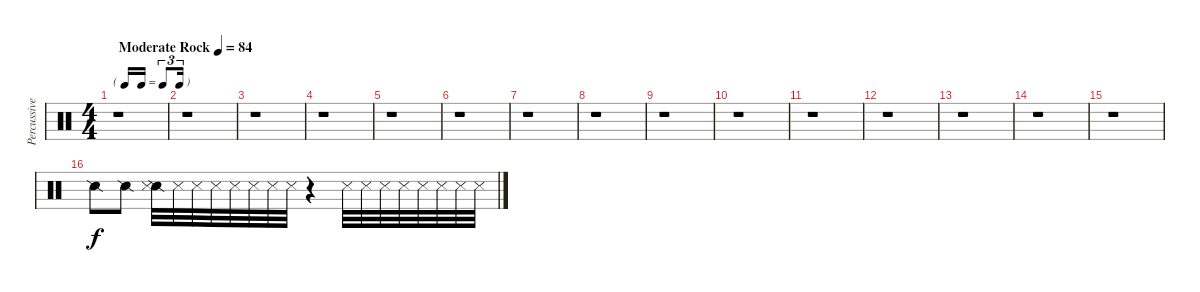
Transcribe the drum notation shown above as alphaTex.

\track ("Percussive Over-Dubs" "Percussive") {instrument percussion}
\staff {score}
\articulation defaults
\ts (4 4)
\tf triplet16th
\tempo (84 "Moderate Rock")
\clef neutral
\ks c
r.1{dy f} |
r.1 |
r.1 |
r.1 |
r.1 |
r.1 |
r.1 |
r.1 |
r.1 |
r.1 |
r.1 |
r.1 |
r.1 |
r.1 |
r.1 |
"Snare (side stick) 2".8 "Snare (side stick) 2".8 ("Snare (side stick) 2" "Metronome (hit)").32 "Metronome (hit)".32 "Metronome (hit)".32 "Metronome (hit)".32 "Metronome (hit)".32 "Metronome (hit)".32 "Metronome (hit)".32 "Metronome (hit)".32 r.4 "Metronome (hit)".32 "Metronome (hit)".32 "Metronome (hit)".32 "Metronome (hit)".32 "Metronome (hit)".32 "Metronome (hit)".32 "Metronome (hit)".32 "Metronome (hit)".32
